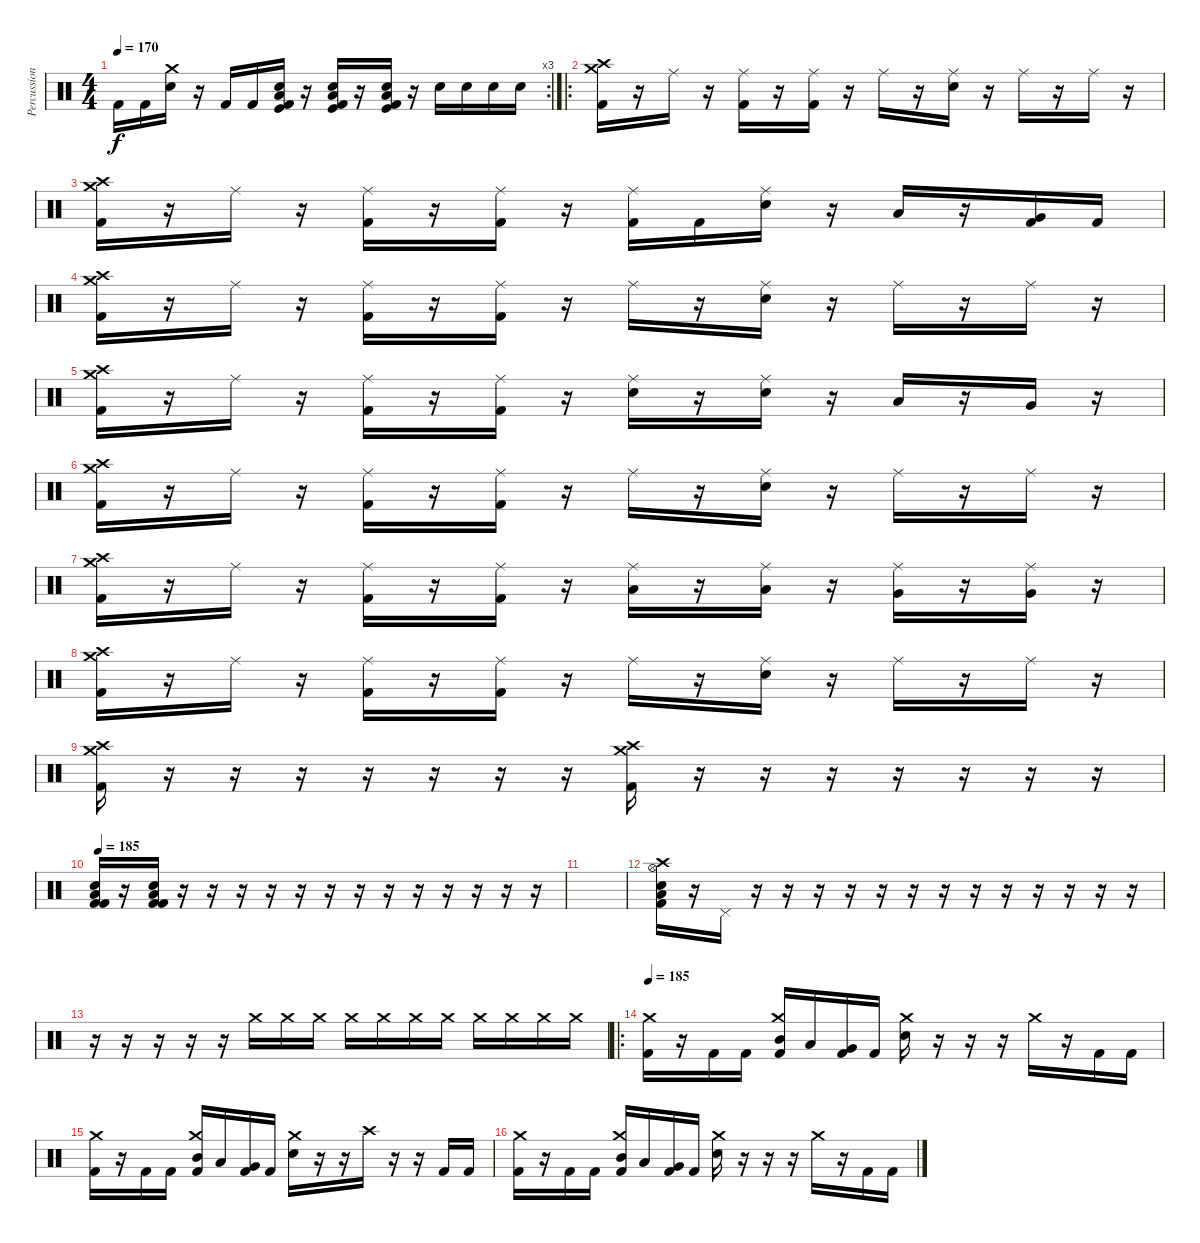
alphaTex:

\track ("Percussion" "Percussion") {instrument percussion}
\staff {score}
\articulation defaults
\rc 3
\ts (4 4)
\tempo 170
\clef neutral
\ks c "Kick (hit) 2".16{dy f} "Kick (hit) 2".16
("Crash medium (hit)" "Electric Snare (hit)").16 r.16 "Kick (hit) 2".16 "Kick (hit) 2".16 ("Kick (hit)" "Kick (hit) 2" "Electric Snare (hit)" "Low Floor Tom (hit)").16 r.16 ("Kick (hit)" "Kick (hit) 2" "Electric Snare (hit)" "Low Floor Tom (hit)").16 r.16 ("Kick (hit)" "Kick (hit) 2" "Electric Snare (hit)" "Low Floor Tom (hit)").16 r.16 "Electric Snare (hit)".16 "Electric Snare (hit)".16 "Electric Snare (hit)".16 "Electric Snare (hit)".16 |
\ro
("Crash medium (hit)" "Crash high (hit)" "Kick (hit) 2").16 r.16 "Ride (middle)".16 r.16 ("Ride (middle)" "Kick (hit) 2").16 r.16 ("Ride (middle)" "Kick (hit) 2").16 r.16 "Ride (middle)".16 r.16 ("Ride (middle)" "Electric Snare (hit)").16 r.16 "Ride (middle)".16 r.16 "Ride (middle)".16 r.16 |
("Crash medium (hit)" "Crash high (hit)" "Kick (hit) 2").16 r.16 "Ride (middle)".16 r.16 ("Ride (middle)" "Kick (hit) 2").16 r.16 ("Ride (middle)" "Kick (hit) 2").16 r.16 ("Ride (middle)" "Kick (hit) 2").16 "Kick (hit) 2".16 ("Ride (middle)" "Electric Snare (hit)").16 r.16 "Low Tom (hit)".16 r.16 ("Very Low Tom (hit)" "Kick (hit) 2").16 "Kick (hit) 2".16 |
("Crash medium (hit)" "Crash high (hit)" "Kick (hit) 2").16 r.16 "Ride (middle)".16 r.16 ("Ride (middle)" "Kick (hit) 2").16 r.16 ("Ride (middle)" "Kick (hit) 2").16 r.16 "Ride (middle)".16 r.16 ("Ride (middle)" "Electric Snare (hit)").16 r.16 "Ride (middle)".16 r.16 "Ride (middle)".16 r.16 |
("Crash medium (hit)" "Crash high (hit)" "Kick (hit) 2").16 r.16 "Ride (middle)".16 r.16 ("Ride (middle)" "Kick (hit) 2").16 r.16 ("Ride (middle)" "Kick (hit) 2").16 r.16 ("Ride (middle)" "Electric Snare (hit)").16 r.16 ("Ride (middle)" "Electric Snare (hit)").16 r.16 "Low Tom (hit)".16 r.16 "Very Low Tom (hit)".16 r.16 |
("Crash medium (hit)" "Crash high (hit)" "Kick (hit) 2").16 r.16 "Ride (middle)".16 r.16 ("Ride (middle)" "Kick (hit) 2").16 r.16 ("Ride (middle)" "Kick (hit) 2").16 r.16 "Ride (middle)".16 r.16 ("Ride (middle)" "Electric Snare (hit)").16 r.16 "Ride (middle)".16 r.16 "Ride (middle)".16 r.16 |
("Crash medium (hit)" "Crash high (hit)" "Kick (hit) 2").16 r.16 "Ride (middle)".16 r.16 ("Ride (middle)" "Kick (hit) 2").16 r.16 ("Ride (middle)" "Kick (hit) 2").16 r.16 ("Ride (middle)" "Low Tom (hit)").16 r.16 ("Ride (middle)" "Low Tom (hit)").16 r.16 ("Ride (middle)" "Very Low Tom (hit)").16 r.16 ("Ride (middle)" "Very Low Tom (hit)").16 r.16 |
("Crash medium (hit)" "Crash high (hit)" "Kick (hit) 2").16 r.16 "Ride (middle)".16 r.16 ("Ride (middle)" "Kick (hit) 2").16 r.16 ("Ride (middle)" "Kick (hit) 2").16 r.16 "Ride (middle)".16 r.16 ("Ride (middle)" "Electric Snare (hit)").16 r.16 "Ride (middle)".16 r.16 "Ride (middle)".16 r.16 |
("Crash medium (hit)" "Crash high (hit)" "Kick (hit) 2").16 r.16 r.16 r.16 r.16 r.16 r.16 r.16 ("Crash medium (hit)" "Crash high (hit)" "Kick (hit) 2").16 r.16 r.16 r.16 r.16 r.16 r.16 r.16 |
\tempo 185
("Electric Snare (hit)" "Kick (hit) 2" "Low Floor Tom (hit)" "Kick (hit) 2").16 r.16 ("Electric Snare (hit)" "Kick (hit) 2" "Low Floor Tom (hit)" "Kick (hit) 2").16 r.16 r.16 r.16 r.16 r.16 r.16 r.16 r.16 r.16 r.16 r.16 r.16 r.16 |
|
("Hi-Hat (open)" "Electric Snare (hit)" "Kick (hit) 2" "Low Floor Tom (hit)" "Crash high (hit)").16 r.16 "Pedal Hi-Hat (hit)".16 r.16 r.16 r.16 r.16 r.16 r.16 r.16 r.16 r.16 r.16 r.16 r.16 r.16 |
r.16 r.16 r.16 r.16 r.16 "Crash medium (hit)".16{volume 0} "Crash medium (hit)".16{volume 1} "Crash medium (hit)".16{volume 3} "Crash medium (hit)".16{volume 4} "Crash medium (hit)".16{volume 5} "Crash medium (hit)".16{volume 6} "Crash medium (hit)".16{volume 7} "Crash medium (hit)".16{volume 8} "Crash medium (hit)".16{volume 9} "Crash medium (hit)".16{volume 10} "Crash medium (hit)".16{volume 11} |
\ro
\tempo 185
("Crash medium (hit)" "Kick (hit) 2").16 r.16 "Kick (hit) 2".16 "Kick (hit) 2".16 ("Crash medium (hit)" "Mid Tom (hit)" "Kick (hit) 2").16 "Low Tom (hit)".16 ("Very Low Tom (hit)" "Kick (hit) 2").16 "Kick (hit) 2".16 ("Crash medium (hit)" "Electric Snare (hit)").16 r.16 r.16 r.16 "Crash medium (hit)".16 r.16 "Kick (hit) 2".16 "Kick (hit) 2".16 |
("Crash medium (hit)" "Kick (hit) 2").16 r.16 "Kick (hit) 2".16 "Kick (hit) 2".16 ("Crash medium (hit)" "Mid Tom (hit)" "Kick (hit) 2").16 "Low Tom (hit)".16 ("Very Low Tom (hit)" "Kick (hit) 2").16 "Kick (hit) 2".16 ("Crash medium (hit)" "Electric Snare (hit)").16 r.16 r.16 "Crash high (hit)".16 r.16 r.16 "Kick (hit) 2".16 "Kick (hit) 2".16 |
("Crash medium (hit)" "Kick (hit) 2").16 r.16 "Kick (hit) 2".16 "Kick (hit) 2".16 ("Crash medium (hit)" "Mid Tom (hit)" "Kick (hit) 2").16 "Low Tom (hit)".16 ("Very Low Tom (hit)" "Kick (hit) 2").16 "Kick (hit) 2".16 ("Crash medium (hit)" "Electric Snare (hit)").16 r.16 r.16 r.16 "Crash medium (hit)".16 r.16 "Kick (hit) 2".16 "Kick (hit) 2".16
